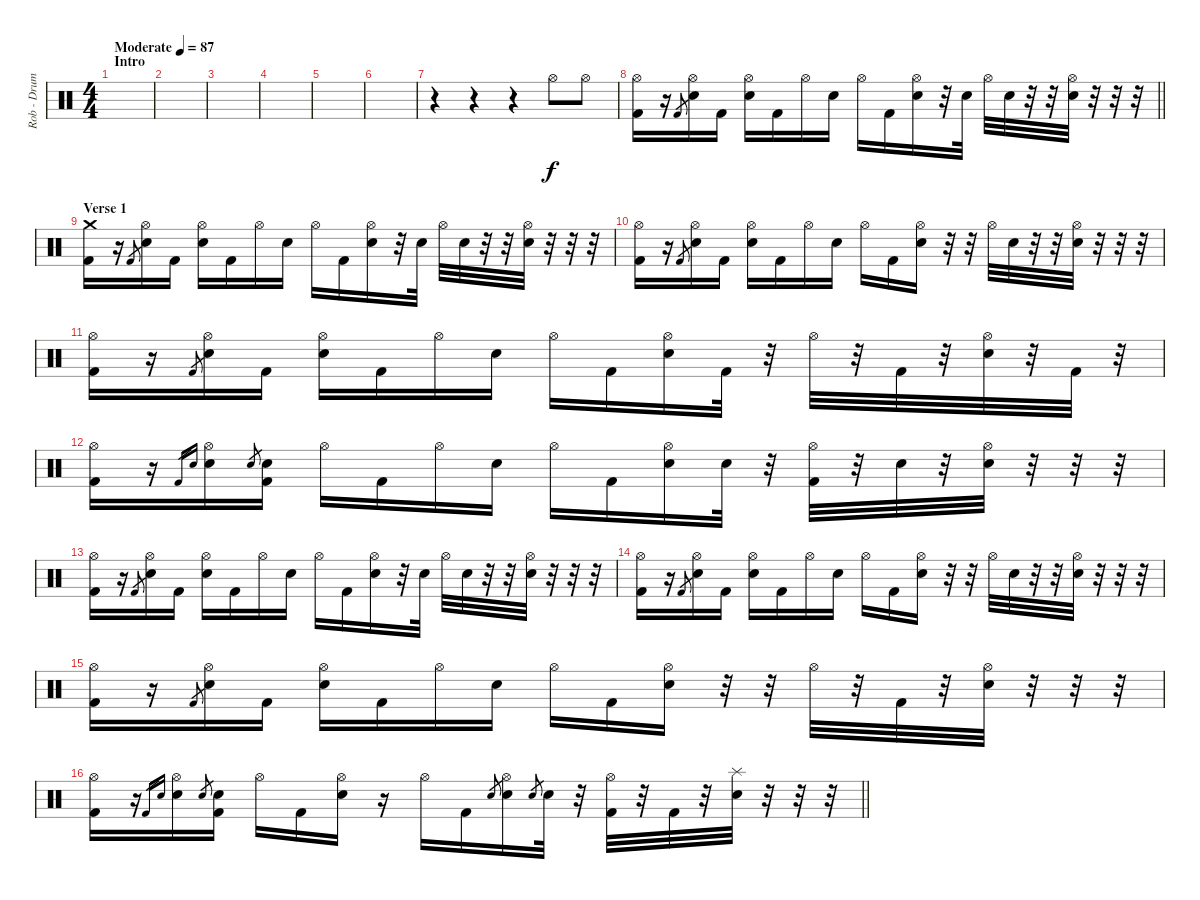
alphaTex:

\track ("Rob - Drums" "Rob - Drum") {instrument percussion}
\staff {score}
\articulation defaults
\ts (4 4)
\section ("" "Intro")
\tempo (87 "Moderate")
\clef neutral
\ks c
|
|
|
|
|
|
r.4 r.4 r.4 "Hi-Hat (open)".8 "Hi-Hat (open)".8 |
\barLineRight lightlight
("Hi-Hat (open)" "Kick (hit) 2").16 r.16 "Kick (hit) 2".8{gr} ("Hi-Hat (open)" "Electric Snare (hit)").16 "Kick (hit) 2".16 ("Hi-Hat (open)" "Electric Snare (hit)").16 "Kick (hit) 2".16 "Hi-Hat (open)".16 "Electric Snare (hit)".16 "Hi-Hat (open)".16 "Kick (hit) 2".16 ("Hi-Hat (open)" "Electric Snare (hit)").16 r.32 "Electric Snare (hit)".32 "Hi-Hat (open)".32 "Electric Snare (hit)".32 r.32 r.32 ("Hi-Hat (open)" "Electric Snare (hit)").32 r.32 r.32 r.32 |
\section ("" "Verse 1")
("Crash medium (hit)" "Kick (hit) 2").16 r.16 "Kick (hit) 2".8{gr} ("Hi-Hat (open)" "Electric Snare (hit)").16 "Kick (hit) 2".16 ("Hi-Hat (open)" "Electric Snare (hit)").16 "Kick (hit) 2".16 "Hi-Hat (open)".16 "Electric Snare (hit)".16 "Hi-Hat (open)".16 "Kick (hit) 2".16 ("Hi-Hat (open)" "Electric Snare (hit)").16 r.32 "Electric Snare (hit)".32 "Hi-Hat (open)".32 "Electric Snare (hit)".32 r.32 r.32 ("Hi-Hat (open)" "Electric Snare (hit)").32 r.32 r.32 r.32 |
("Hi-Hat (open)" "Kick (hit) 2").16 r.16 "Kick (hit) 2".8{gr} ("Hi-Hat (open)" "Electric Snare (hit)").16 "Kick (hit) 2".16 ("Hi-Hat (open)" "Electric Snare (hit)").16 "Kick (hit) 2".16 "Hi-Hat (open)".16 "Electric Snare (hit)".16 "Hi-Hat (open)".16 "Kick (hit) 2".16 ("Hi-Hat (open)" "Electric Snare (hit)").16 r.32 r.32 "Hi-Hat (open)".32 "Electric Snare (hit)".32 r.32 r.32 ("Hi-Hat (open)" "Electric Snare (hit)").32 r.32 r.32 r.32 |
("Hi-Hat (open)" "Kick (hit) 2").16 r.16 "Kick (hit) 2".8{gr} ("Hi-Hat (open)" "Electric Snare (hit)").16 "Kick (hit) 2".16 ("Hi-Hat (open)" "Electric Snare (hit)").16 "Kick (hit) 2".16 "Hi-Hat (open)".16 "Electric Snare (hit)".16 "Hi-Hat (open)".16 "Kick (hit) 2".16 ("Hi-Hat (open)" "Electric Snare (hit)").16 "Kick (hit) 2".32 r.32 "Hi-Hat (open)".32 r.32 "Kick (hit) 2".32 r.32 ("Hi-Hat (open)" "Electric Snare (hit)").32 r.32 "Kick (hit) 2".32 r.32 |
("Hi-Hat (open)" "Kick (hit) 2").16 r.16 "Kick (hit) 2".16{gr} "Electric Snare (hit)".16{gr} ("Hi-Hat (open)" "Electric Snare (hit)").16 "Electric Snare (hit)".8{gr} ("Electric Snare (hit)" "Kick (hit) 2").16 "Hi-Hat (open)".16 "Kick (hit) 2".16 "Hi-Hat (open)".16 "Electric Snare (hit)".16 "Hi-Hat (open)".16 "Kick (hit) 2".16 ("Hi-Hat (open)" "Electric Snare (hit)").16 "Electric Snare (hit)".32 r.32 ("Hi-Hat (open)" "Kick (hit) 2").32 r.32 "Electric Snare (hit)".32 r.32 ("Hi-Hat (open)" "Electric Snare (hit)").32 r.32 r.32 r.32 |
("Hi-Hat (open)" "Kick (hit) 2").16 r.16 "Kick (hit) 2".8{gr} ("Hi-Hat (open)" "Electric Snare (hit)").16 "Kick (hit) 2".16 ("Hi-Hat (open)" "Electric Snare (hit)").16 "Kick (hit) 2".16 "Hi-Hat (open)".16 "Electric Snare (hit)".16 "Hi-Hat (open)".16 "Kick (hit) 2".16 ("Hi-Hat (open)" "Electric Snare (hit)").16 r.32 "Electric Snare (hit)".32 "Hi-Hat (open)".32 "Electric Snare (hit)".32 r.32 r.32 ("Hi-Hat (open)" "Electric Snare (hit)").32 r.32 r.32 r.32 |
("Hi-Hat (open)" "Kick (hit) 2").16 r.16 "Kick (hit) 2".8{gr} ("Hi-Hat (open)" "Electric Snare (hit)").16 "Kick (hit) 2".16 ("Hi-Hat (open)" "Electric Snare (hit)").16 "Kick (hit) 2".16 "Hi-Hat (open)".16 "Electric Snare (hit)".16 "Hi-Hat (open)".16 "Kick (hit) 2".16 ("Hi-Hat (open)" "Electric Snare (hit)").16 r.32 r.32 "Hi-Hat (open)".32 "Electric Snare (hit)".32 r.32 r.32 ("Hi-Hat (open)" "Electric Snare (hit)").32 r.32 r.32 r.32 |
("Hi-Hat (open)" "Kick (hit) 2").16 r.16 "Kick (hit) 2".8{gr} ("Hi-Hat (open)" "Electric Snare (hit)").16 "Kick (hit) 2".16 ("Hi-Hat (open)" "Electric Snare (hit)").16 "Kick (hit) 2".16 "Hi-Hat (open)".16 "Electric Snare (hit)".16 "Hi-Hat (open)".16 "Kick (hit) 2".16 ("Hi-Hat (open)" "Electric Snare (hit)").16 r.32 r.32 "Hi-Hat (open)".32 r.32 "Kick (hit) 2".32 r.32 ("Hi-Hat (open)" "Electric Snare (hit)").32 r.32 r.32 r.32 |
\barLineRight lightlight
("Hi-Hat (open)" "Kick (hit) 2").16 r.16 "Kick (hit) 2".16{gr} "Electric Snare (hit)".16{gr} ("Hi-Hat (open)" "Electric Snare (hit)").16 "Electric Snare (hit)".8{gr} ("Electric Snare (hit)" "Kick (hit) 2").16 "Hi-Hat (open)".16 "Kick (hit) 2".16 ("Hi-Hat (open)" "Electric Snare (hit)").16 r.16 "Hi-Hat (open)".16 "Kick (hit) 2".16 "Electric Snare (hit)".8{gr} ("Hi-Hat (open)" "Electric Snare (hit)").16 "Electric Snare (hit)".8{gr} "Electric Snare (hit)".32 r.32 ("Hi-Hat (open)" "Kick (hit) 2").32 r.32 "Kick (hit) 2".32 r.32 ("Splash (hit)" "Electric Snare (hit)").32 r.32 r.32 r.32
